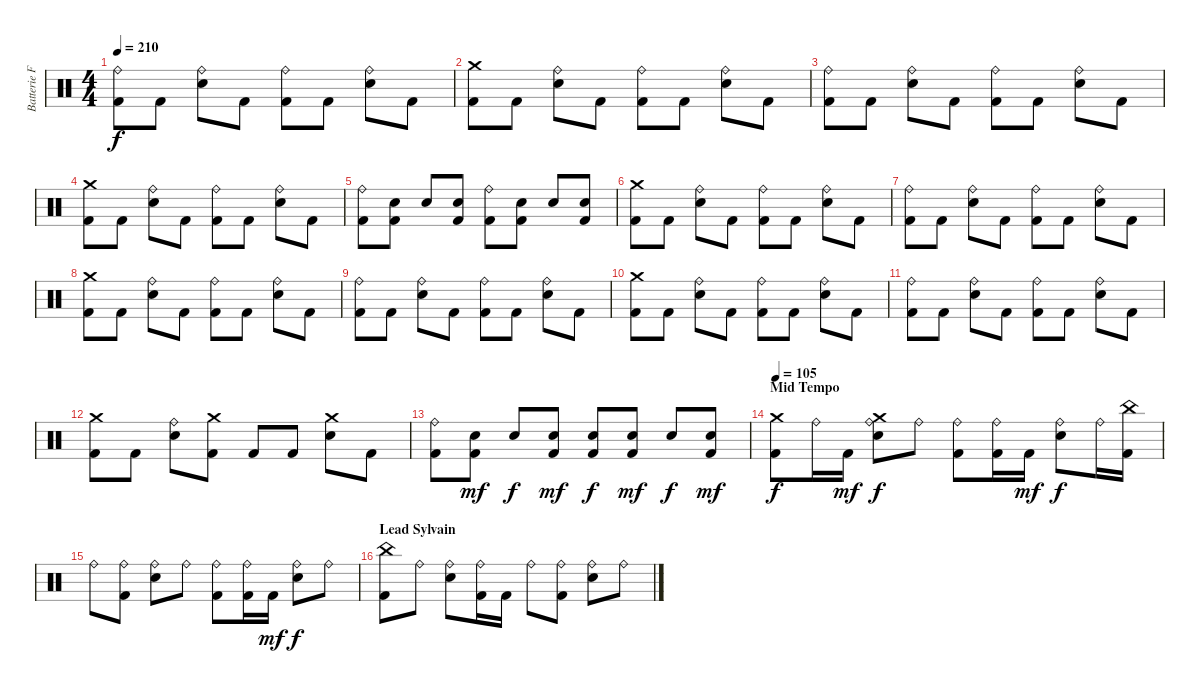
\track ("Batterie Franck" "Batterie F") {instrument percussion}
\staff {score}
\articulation defaults
\ts (4 4)
\tempo 210
\clef neutral
\ks c
("Ride (bell)" "Kick (hit) 2").8{dy f} "Kick (hit) 2".8 ("Ride (bell)" "Snare (hit) 2").8 "Kick (hit) 2".8 ("Ride (bell)" "Kick (hit) 2").8 "Kick (hit) 2".8 ("Ride (bell)" "Snare (hit) 2").8 "Kick (hit) 2".8 |
("Crash medium (hit)" "Kick (hit) 2").8 "Kick (hit) 2".8 ("Ride (bell)" "Snare (hit) 2").8 "Kick (hit) 2".8 ("Ride (bell)" "Kick (hit) 2").8 "Kick (hit) 2".8 ("Ride (bell)" "Snare (hit) 2").8 "Kick (hit) 2".8 |
("Ride (bell)" "Kick (hit) 2").8 "Kick (hit) 2".8 ("Ride (bell)" "Snare (hit) 2").8 "Kick (hit) 2".8 ("Ride (bell)" "Kick (hit) 2").8 "Kick (hit) 2".8 ("Ride (bell)" "Snare (hit) 2").8 "Kick (hit) 2".8 |
("Crash medium (hit)" "Kick (hit) 2").8 "Kick (hit) 2".8 ("Ride (bell)" "Snare (hit) 2").8 "Kick (hit) 2".8 ("Ride (bell)" "Kick (hit) 2").8 "Kick (hit) 2".8 ("Ride (bell)" "Snare (hit) 2").8 "Kick (hit) 2".8 |
("Ride (bell)" "Kick (hit) 2").8 ("Snare (hit) 2" "Kick (hit) 2").8 "Snare (hit) 2".8 ("Snare (hit) 2" "Kick (hit) 2").8 ("Ride (bell)" "Kick (hit) 2").8 ("Snare (hit) 2" "Kick (hit) 2").8 "Snare (hit) 2".8 ("Snare (hit) 2" "Kick (hit) 2").8 |
("Crash medium (hit)" "Kick (hit) 2").8 "Kick (hit) 2".8 ("Ride (bell)" "Snare (hit) 2").8 "Kick (hit) 2".8 ("Ride (bell)" "Kick (hit) 2").8 "Kick (hit) 2".8 ("Ride (bell)" "Snare (hit) 2").8 "Kick (hit) 2".8 |
("Ride (bell)" "Kick (hit) 2").8 "Kick (hit) 2".8 ("Ride (bell)" "Snare (hit) 2").8 "Kick (hit) 2".8 ("Ride (bell)" "Kick (hit) 2").8 "Kick (hit) 2".8 ("Ride (bell)" "Snare (hit) 2").8 "Kick (hit) 2".8 |
("Crash medium (hit)" "Kick (hit) 2").8 "Kick (hit) 2".8 ("Ride (bell)" "Snare (hit) 2").8 "Kick (hit) 2".8 ("Ride (bell)" "Kick (hit) 2").8 "Kick (hit) 2".8 ("Ride (bell)" "Snare (hit) 2").8 "Kick (hit) 2".8 |
("Ride (bell)" "Kick (hit) 2").8 "Kick (hit) 2".8 ("Ride (bell)" "Snare (hit) 2").8 "Kick (hit) 2".8 ("Ride (bell)" "Kick (hit) 2").8 "Kick (hit) 2".8 ("Ride (bell)" "Snare (hit) 2").8 "Kick (hit) 2".8 |
("Crash medium (hit)" "Kick (hit) 2").8 "Kick (hit) 2".8 ("Ride (bell)" "Snare (hit) 2").8 "Kick (hit) 2".8 ("Ride (bell)" "Kick (hit) 2").8 "Kick (hit) 2".8 ("Ride (bell)" "Snare (hit) 2").8 "Kick (hit) 2".8 |
("Ride (bell)" "Kick (hit) 2").8 "Kick (hit) 2".8 ("Ride (bell)" "Snare (hit) 2").8 "Kick (hit) 2".8 ("Ride (bell)" "Kick (hit) 2").8 "Kick (hit) 2".8 ("Ride (bell)" "Snare (hit) 2").8 "Kick (hit) 2".8 |
("Crash medium (hit)" "Kick (hit) 2").8 "Kick (hit) 2".8 ("Ride (bell)" "Snare (hit) 2").8 ("Crash medium (hit)" "Kick (hit) 2").8 "Kick (hit) 2".8 "Kick (hit) 2".8 ("Crash medium (hit)" "Snare (hit) 2").8 "Kick (hit) 2".8 |
("Ride (bell)" "Kick (hit) 2").8 ("Snare (hit) 2" "Kick (hit) 2").8{dy mf} "Snare (hit) 2".8{dy f} ("Snare (hit) 2" "Kick (hit) 2").8{dy mf} ("Snare (hit) 2" "Kick (hit) 2").8{dy f} ("Snare (hit) 2" "Kick (hit) 2").8{dy mf} "Snare (hit) 2".8{dy f} ("Snare (hit) 2" "Kick (hit) 2").8{dy mf} |
\section ("" "Mid Tempo")
\tempo 105
("Crash medium (hit)" "Kick (hit) 2").8{dy f} "Ride (bell)".16 "Kick (hit) 2".16{dy mf} ("Crash medium (hit)" "Ride (bell)" "Snare (hit) 2").8{dy f} "Ride (bell)".8 ("Ride (bell)" "Kick (hit) 2").8 ("Ride (bell)" "Kick (hit) 2").16 "Kick (hit) 2".16{dy mf} ("Ride (bell)" "Snare (hit) 2").8{dy f} "Ride (bell)".16 ("China (hit)" "Kick (hit) 2").16 |
"Ride (bell)".8 ("Ride (bell)" "Kick (hit) 2").8 ("Ride (bell)" "Snare (hit) 2").8 "Ride (bell)".8 ("Ride (bell)" "Kick (hit) 2").8 ("Ride (bell)" "Kick (hit) 2").16 "Kick (hit) 2".16{dy mf} ("Ride (bell)" "Snare (hit) 2").8{dy f} "Ride (bell)".8 |
\section ("" "Lead Sylvain")
("China (hit)" "Kick (hit) 2").8 "Ride (bell)".8 ("Ride (bell)" "Snare (hit) 2").8 ("Ride (bell)" "Kick (hit) 2").16 "Kick (hit) 2".16 "Ride (bell)".8 ("Ride (bell)" "Kick (hit) 2").8 ("Ride (bell)" "Snare (hit) 2").8 "Ride (bell)".8
